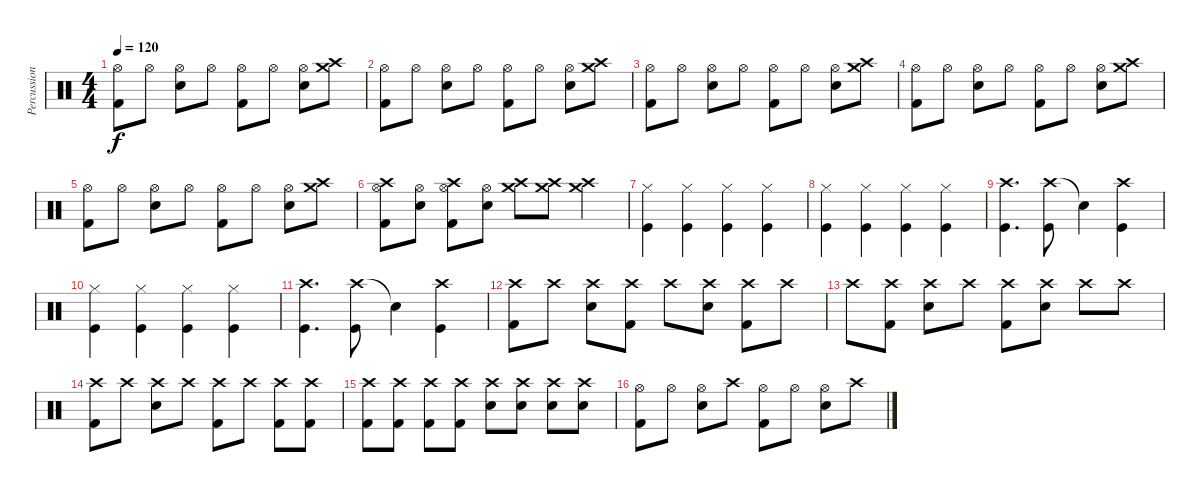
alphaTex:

\track ("Percussion" "Percussion") {instrument percussion}
\staff {score}
\articulation defaults
\ts (4 4)
\tempo 120
\clef neutral
\ks c
("Hi-Hat (open)" "Kick (hit) 2").8{dy f} "Hi-Hat (open)".8 ("Hi-Hat (open)" "Electric Snare (hit)").8 "Hi-Hat (open)".8 ("Hi-Hat (open)" "Kick (hit) 2").8 "Hi-Hat (open)".8 ("Hi-Hat (open)" "Electric Snare (hit)").8 ("Crash high (hit)" "Crash medium (hit)").8 |
("Hi-Hat (open)" "Kick (hit) 2").8 "Hi-Hat (open)".8 ("Hi-Hat (open)" "Electric Snare (hit)").8 "Hi-Hat (open)".8 ("Hi-Hat (open)" "Kick (hit) 2").8 "Hi-Hat (open)".8 ("Hi-Hat (open)" "Electric Snare (hit)").8 ("Crash high (hit)" "Crash medium (hit)").8 |
("Hi-Hat (open)" "Kick (hit) 2").8 "Hi-Hat (open)".8 ("Hi-Hat (open)" "Electric Snare (hit)").8 "Hi-Hat (open)".8 ("Hi-Hat (open)" "Kick (hit) 2").8 "Hi-Hat (open)".8 ("Hi-Hat (open)" "Electric Snare (hit)").8 ("Crash high (hit)" "Crash medium (hit)").8 |
("Hi-Hat (open)" "Kick (hit) 2").8 "Hi-Hat (open)".8 ("Hi-Hat (open)" "Electric Snare (hit)").8 "Hi-Hat (open)".8 ("Hi-Hat (open)" "Kick (hit) 2").8 "Hi-Hat (open)".8 ("Hi-Hat (open)" "Electric Snare (hit)").8 ("Crash high (hit)" "Crash medium (hit)").8 |
("Hi-Hat (open)" "Kick (hit) 2").8 "Hi-Hat (open)".8 ("Hi-Hat (open)" "Electric Snare (hit)").8 "Hi-Hat (open)".8 ("Hi-Hat (open)" "Kick (hit) 2").8 "Hi-Hat (open)".8 ("Hi-Hat (open)" "Electric Snare (hit)").8 ("Crash high (hit)" "Crash medium (hit)").8 |
("Hi-Hat (open)" "Crash high (hit)" "Kick (hit) 2").8 ("Hi-Hat (open)" "Electric Snare (hit)").8 ("Hi-Hat (open)" "Crash high (hit)" "Kick (hit) 2").8 ("Hi-Hat (open)" "Electric Snare (hit)").8 ("Crash high (hit)" "Crash medium (hit)").8 ("Crash high (hit)" "Crash medium (hit)").8 ("Crash high (hit)" "Crash medium (hit)").4 |
("Hi-Hat (closed)" "Kick (hit)").4 ("Hi-Hat (closed)" "Kick (hit)").4 ("Hi-Hat (closed)" "Kick (hit)").4 ("Hi-Hat (closed)" "Kick (hit)").4 |
("Hi-Hat (closed)" "Kick (hit)").4 ("Hi-Hat (closed)" "Kick (hit)").4 ("Hi-Hat (closed)" "Kick (hit)").4 ("Hi-Hat (closed)" "Kick (hit)").4 |
("Crash high (hit)" "Kick (hit)").4{d} ("Crash high (hit)" "Kick (hit)").8 "Snare (hit)"{t}.4 ("Crash high (hit)" "Kick (hit)").4 |
("Hi-Hat (closed)" "Kick (hit)").4 ("Hi-Hat (closed)" "Kick (hit)").4 ("Hi-Hat (closed)" "Kick (hit)").4 ("Hi-Hat (closed)" "Kick (hit)").4 |
("Crash high (hit)" "Kick (hit)").4{d} ("Crash high (hit)" "Kick (hit)").8 "Snare (hit)"{t}.4 ("Crash high (hit)" "Kick (hit)").4 |
("Crash high (hit)" "Kick (hit) 2").8 "Crash high (hit)".8 ("Crash high (hit)" "Electric Snare (hit)").8 ("Crash high (hit)" "Kick (hit) 2").8 "Crash high (hit)".8 ("Crash high (hit)" "Electric Snare (hit)").8 ("Crash high (hit)" "Kick (hit) 2").8 "Crash high (hit)".8 |
"Crash high (hit)".8 ("Crash high (hit)" "Kick (hit) 2").8 ("Crash high (hit)" "Electric Snare (hit)").8 "Crash high (hit)".8 ("Crash high (hit)" "Kick (hit) 2").8 ("Crash high (hit)" "Electric Snare (hit)").8 "Crash high (hit)".8 "Crash high (hit)".8 |
("Crash high (hit)" "Kick (hit) 2").8 "Crash high (hit)".8 ("Crash high (hit)" "Electric Snare (hit)").8 "Crash high (hit)".8 ("Crash high (hit)" "Kick (hit) 2").8 "Crash high (hit)".8 ("Crash high (hit)" "Kick (hit) 2").8 ("Crash high (hit)" "Kick (hit) 2").8 |
("Crash high (hit)" "Kick (hit) 2").8 ("Crash high (hit)" "Kick (hit) 2").8 ("Crash high (hit)" "Kick (hit) 2").8 ("Crash high (hit)" "Kick (hit) 2").8 ("Crash high (hit)" "Electric Snare (hit)").8 ("Crash high (hit)" "Electric Snare (hit)").8 ("Crash high (hit)" "Electric Snare (hit)").8 ("Crash high (hit)" "Electric Snare (hit)").8 |
("Hi-Hat (open)" "Kick (hit) 2").8 "Hi-Hat (open)".8 ("Hi-Hat (open)" "Electric Snare (hit)").8 "Crash high (hit)".8 ("Hi-Hat (open)" "Kick (hit) 2").8 "Hi-Hat (open)".8 ("Hi-Hat (open)" "Electric Snare (hit)").8 "Crash high (hit)".8
